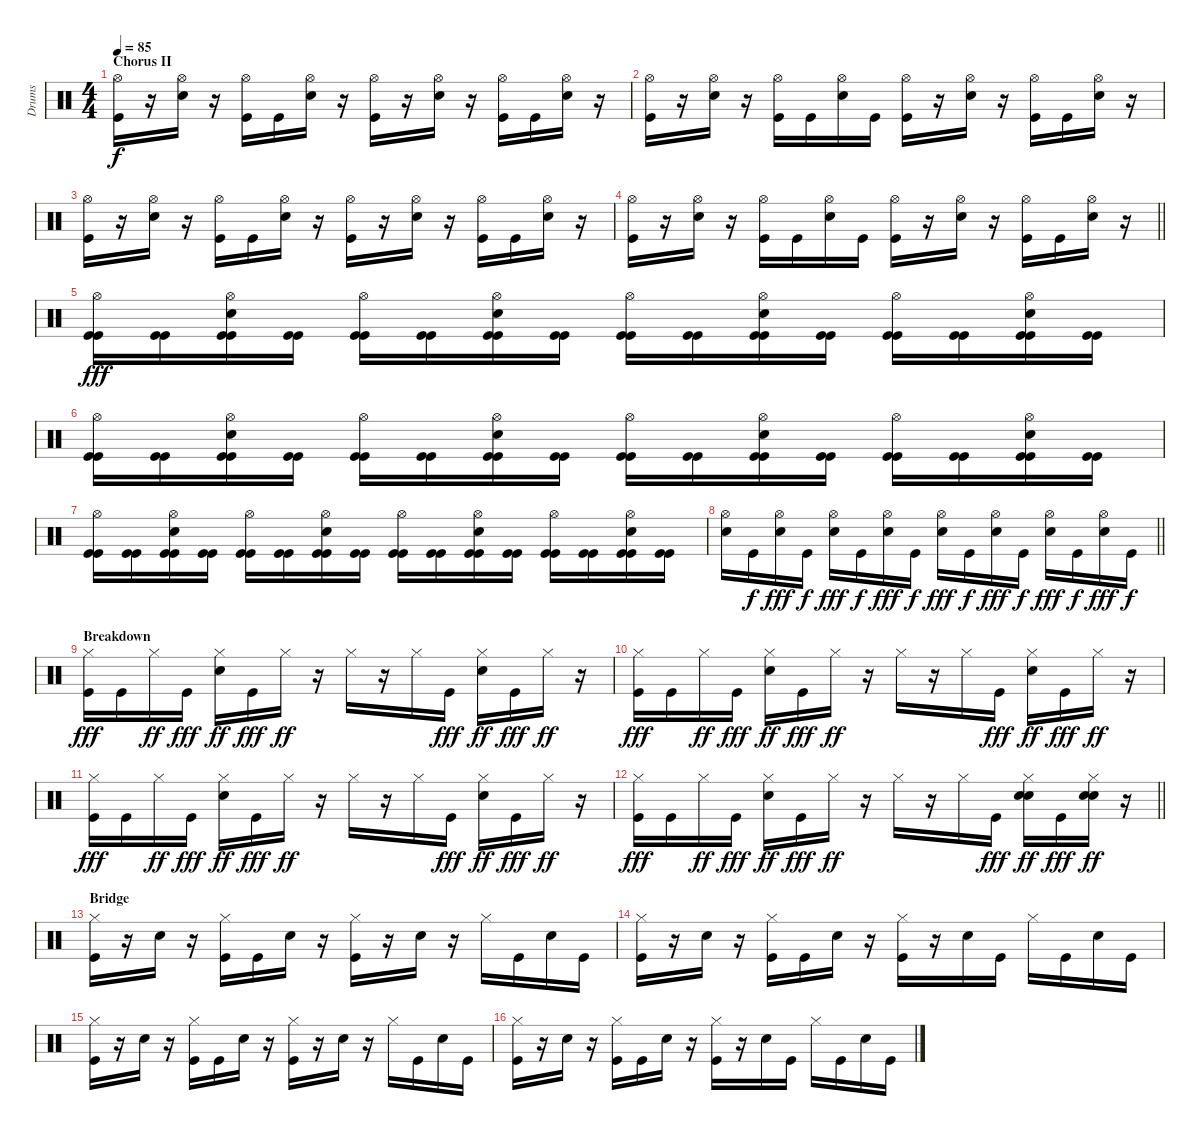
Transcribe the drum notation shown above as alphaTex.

\track ("Drums" "Drums") {instrument percussion}
\staff {score}
\articulation defaults
\ts (4 4)
\section ("" "Chorus II")
\tempo 85
\clef neutral
\ks c
("Hi-Hat (open)" "Kick (hit)").16{dy f volume 14} r.16 ("Hi-Hat (open)" "Electric Snare (hit)").16 r.16 ("Hi-Hat (open)" "Kick (hit)").16 "Kick (hit)".16 ("Hi-Hat (open)" "Electric Snare (hit)").16 r.16 ("Hi-Hat (open)" "Kick (hit)").16 r.16 ("Hi-Hat (open)" "Electric Snare (hit)").16 r.16 ("Hi-Hat (open)" "Kick (hit)").16 "Kick (hit)".16 ("Hi-Hat (open)" "Electric Snare (hit)").16 r.16 |
("Hi-Hat (open)" "Kick (hit)").16 r.16 ("Hi-Hat (open)" "Electric Snare (hit)").16 r.16 ("Hi-Hat (open)" "Kick (hit)").16 "Kick (hit)".16 ("Hi-Hat (open)" "Electric Snare (hit)").16 "Kick (hit)".16 ("Hi-Hat (open)" "Kick (hit)").16 r.16 ("Hi-Hat (open)" "Electric Snare (hit)").16 r.16 ("Hi-Hat (open)" "Kick (hit)").16 "Kick (hit)".16 ("Hi-Hat (open)" "Electric Snare (hit)").16 r.16 |
("Hi-Hat (open)" "Kick (hit)").16 r.16 ("Hi-Hat (open)" "Electric Snare (hit)").16 r.16 ("Hi-Hat (open)" "Kick (hit)").16 "Kick (hit)".16 ("Hi-Hat (open)" "Electric Snare (hit)").16 r.16 ("Hi-Hat (open)" "Kick (hit)").16 r.16 ("Hi-Hat (open)" "Electric Snare (hit)").16 r.16 ("Hi-Hat (open)" "Kick (hit)").16 "Kick (hit)".16 ("Hi-Hat (open)" "Electric Snare (hit)").16 r.16 |
\barLineRight lightlight
("Hi-Hat (open)" "Kick (hit)").16 r.16 ("Hi-Hat (open)" "Electric Snare (hit)").16 r.16 ("Hi-Hat (open)" "Kick (hit)").16 "Kick (hit)".16 ("Hi-Hat (open)" "Electric Snare (hit)").16 "Kick (hit)".16 ("Hi-Hat (open)" "Kick (hit)").16 r.16 ("Hi-Hat (open)" "Electric Snare (hit)").16 r.16 ("Hi-Hat (open)" "Kick (hit)").16 "Kick (hit)".16 ("Hi-Hat (open)" "Electric Snare (hit)").16 r.16 |
("Hi-Hat (open)" "Kick (hit)" "Kick (hit)").16{dy fff volume 16} ("Kick (hit)" "Kick (hit)").16 ("Hi-Hat (open)" "Electric Snare (hit)" "Kick (hit)" "Kick (hit)").16 ("Kick (hit)" "Kick (hit)").16 ("Hi-Hat (open)" "Kick (hit)" "Kick (hit)").16 ("Kick (hit)" "Kick (hit)").16 ("Hi-Hat (open)" "Electric Snare (hit)" "Kick (hit)" "Kick (hit)").16 ("Kick (hit)" "Kick (hit)").16 ("Hi-Hat (open)" "Kick (hit)" "Kick (hit)").16 ("Kick (hit)" "Kick (hit)").16 ("Hi-Hat (open)" "Electric Snare (hit)" "Kick (hit)" "Kick (hit)").16 ("Kick (hit)" "Kick (hit)").16 ("Hi-Hat (open)" "Kick (hit)" "Kick (hit)").16 ("Kick (hit)" "Kick (hit)").16 ("Hi-Hat (open)" "Electric Snare (hit)" "Kick (hit)" "Kick (hit)").16 ("Kick (hit)" "Kick (hit)").16 |
("Hi-Hat (open)" "Kick (hit)" "Kick (hit)").16{volume 16} ("Kick (hit)" "Kick (hit)").16 ("Hi-Hat (open)" "Electric Snare (hit)" "Kick (hit)" "Kick (hit)").16 ("Kick (hit)" "Kick (hit)").16 ("Hi-Hat (open)" "Kick (hit)" "Kick (hit)").16 ("Kick (hit)" "Kick (hit)").16 ("Hi-Hat (open)" "Electric Snare (hit)" "Kick (hit)" "Kick (hit)").16 ("Kick (hit)" "Kick (hit)").16 ("Hi-Hat (open)" "Kick (hit)" "Kick (hit)").16 ("Kick (hit)" "Kick (hit)").16 ("Hi-Hat (open)" "Electric Snare (hit)" "Kick (hit)" "Kick (hit)").16 ("Kick (hit)" "Kick (hit)").16 ("Hi-Hat (open)" "Kick (hit)" "Kick (hit)").16 ("Kick (hit)" "Kick (hit)").16 ("Hi-Hat (open)" "Electric Snare (hit)" "Kick (hit)" "Kick (hit)").16 ("Kick (hit)" "Kick (hit)").16 |
("Hi-Hat (open)" "Kick (hit)" "Kick (hit)").16{volume 16} ("Kick (hit)" "Kick (hit)").16 ("Hi-Hat (open)" "Electric Snare (hit)" "Kick (hit)" "Kick (hit)").16 ("Kick (hit)" "Kick (hit)").16 ("Hi-Hat (open)" "Kick (hit)" "Kick (hit)").16 ("Kick (hit)" "Kick (hit)").16 ("Hi-Hat (open)" "Electric Snare (hit)" "Kick (hit)" "Kick (hit)").16 ("Kick (hit)" "Kick (hit)").16 ("Hi-Hat (open)" "Kick (hit)" "Kick (hit)").16 ("Kick (hit)" "Kick (hit)").16 ("Hi-Hat (open)" "Electric Snare (hit)" "Kick (hit)" "Kick (hit)").16 ("Kick (hit)" "Kick (hit)").16 ("Hi-Hat (open)" "Kick (hit)" "Kick (hit)").16 ("Kick (hit)" "Kick (hit)").16 ("Hi-Hat (open)" "Electric Snare (hit)" "Kick (hit)" "Kick (hit)").16 ("Kick (hit)" "Kick (hit)").16 |
\barLineRight lightlight
("Hi-Hat (open)" "Electric Snare (hit)").16 "Kick (hit)".16{dy f} ("Hi-Hat (open)" "Electric Snare (hit)").16{dy fff} "Kick (hit)".16{dy f} ("Hi-Hat (open)" "Electric Snare (hit)").16{dy fff} "Kick (hit)".16{dy f} ("Hi-Hat (open)" "Electric Snare (hit)").16{dy fff} "Kick (hit)".16{dy f} ("Hi-Hat (open)" "Electric Snare (hit)").16{dy fff} "Kick (hit)".16{dy f} ("Hi-Hat (open)" "Electric Snare (hit)").16{dy fff} "Kick (hit)".16{dy f} ("Hi-Hat (open)" "Electric Snare (hit)").16{dy fff} "Kick (hit)".16{dy f} ("Hi-Hat (open)" "Electric Snare (hit)").16{dy fff} "Kick (hit)".16{dy f} |
\section ("" "Breakdown")
("Hi-Hat (closed)" "Kick (hit)").16{dy fff volume 16} "Kick (hit)".16 "Hi-Hat (closed)".16{dy ff} "Kick (hit)".16{dy fff} ("Hi-Hat (closed)" "Electric Snare (hit)").16{dy ff} "Kick (hit)".16{dy fff} "Hi-Hat (closed)".16{dy ff} r.16 "Hi-Hat (closed)".16 r.16 "Hi-Hat (closed)".16 "Kick (hit)".16{dy fff} ("Hi-Hat (closed)" "Electric Snare (hit)").16{dy ff} "Kick (hit)".16{dy fff} "Hi-Hat (closed)".16{dy ff} r.16 |
("Hi-Hat (closed)" "Kick (hit)").16{dy fff} "Kick (hit)".16 "Hi-Hat (closed)".16{dy ff} "Kick (hit)".16{dy fff} ("Hi-Hat (closed)" "Electric Snare (hit)").16{dy ff} "Kick (hit)".16{dy fff} "Hi-Hat (closed)".16{dy ff} r.16 "Hi-Hat (closed)".16 r.16 "Hi-Hat (closed)".16 "Kick (hit)".16{dy fff} ("Hi-Hat (closed)" "Electric Snare (hit)").16{dy ff} "Kick (hit)".16{dy fff} "Hi-Hat (closed)".16{dy ff} r.16 |
("Hi-Hat (closed)" "Kick (hit)").16{dy fff} "Kick (hit)".16 "Hi-Hat (closed)".16{dy ff} "Kick (hit)".16{dy fff} ("Hi-Hat (closed)" "Electric Snare (hit)").16{dy ff} "Kick (hit)".16{dy fff} "Hi-Hat (closed)".16{dy ff} r.16 "Hi-Hat (closed)".16 r.16 "Hi-Hat (closed)".16 "Kick (hit)".16{dy fff} ("Hi-Hat (closed)" "Electric Snare (hit)").16{dy ff} "Kick (hit)".16{dy fff} "Hi-Hat (closed)".16{dy ff} r.16 |
\barLineRight lightlight
("Hi-Hat (closed)" "Kick (hit)").16{dy fff} "Kick (hit)".16 "Hi-Hat (closed)".16{dy ff} "Kick (hit)".16{dy fff} ("Hi-Hat (closed)" "Electric Snare (hit)").16{dy ff} "Kick (hit)".16{dy fff} "Hi-Hat (closed)".16{dy ff} r.16 "Hi-Hat (closed)".16 r.16 "Hi-Hat (closed)".16 "Kick (hit)".16{dy fff} ("Hi-Hat (closed)" "Electric Snare (hit)" "Electric Snare (hit)").16{dy ff} "Kick (hit)".16{dy fff} ("Hi-Hat (closed)" "Electric Snare (hit)" "Electric Snare (hit)").16{dy ff} r.16 |
\section ("" "Bridge")
("Hi-Hat (closed)" "Kick (hit)").16{volume 14} r.16 "Electric Snare (hit)".16 r.16 ("Hi-Hat (closed)" "Kick (hit)").16 "Kick (hit)".16 "Electric Snare (hit)".16 r.16 ("Hi-Hat (closed)" "Kick (hit)").16 r.16 "Electric Snare (hit)".16 r.16 "Hi-Hat (closed)".16 "Kick (hit)".16 "Electric Snare (hit)".16 "Kick (hit)".16 |
("Hi-Hat (closed)" "Kick (hit)").16 r.16 "Electric Snare (hit)".16 r.16 ("Hi-Hat (closed)" "Kick (hit)").16 "Kick (hit)".16 "Electric Snare (hit)".16 r.16 ("Hi-Hat (closed)" "Kick (hit)").16 r.16 "Electric Snare (hit)".16 "Kick (hit)".16 "Hi-Hat (closed)".16 "Kick (hit)".16 "Electric Snare (hit)".16 "Kick (hit)".16 |
("Hi-Hat (closed)" "Kick (hit)").16 r.16 "Electric Snare (hit)".16 r.16 ("Hi-Hat (closed)" "Kick (hit)").16 "Kick (hit)".16 "Electric Snare (hit)".16 r.16 ("Hi-Hat (closed)" "Kick (hit)").16 r.16 "Electric Snare (hit)".16 r.16 "Hi-Hat (closed)".16 "Kick (hit)".16 "Electric Snare (hit)".16 "Kick (hit)".16 |
("Hi-Hat (closed)" "Kick (hit)").16 r.16 "Electric Snare (hit)".16 r.16 ("Hi-Hat (closed)" "Kick (hit)").16 "Kick (hit)".16 "Electric Snare (hit)".16 r.16 ("Hi-Hat (closed)" "Kick (hit)").16 r.16 "Electric Snare (hit)".16 "Kick (hit)".16 "Hi-Hat (closed)".16 "Kick (hit)".16 "Electric Snare (hit)".16 "Kick (hit)".16
